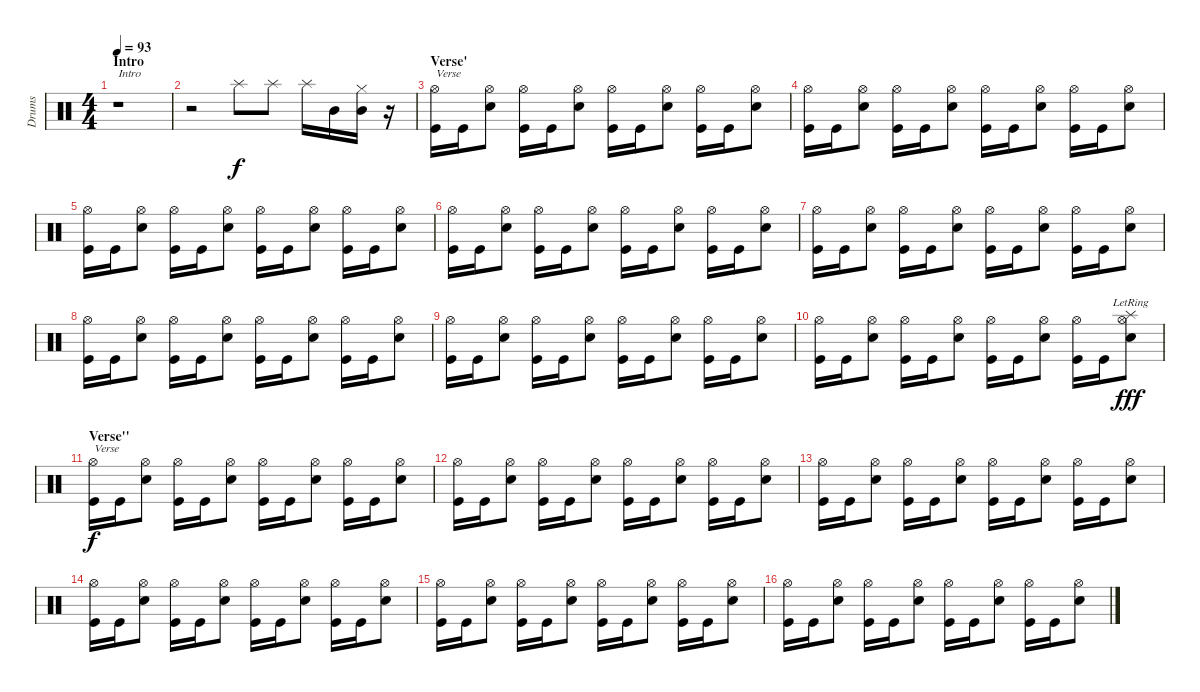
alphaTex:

\track ("Drums" "Drums") {instrument percussion}
\staff {score}
\articulation defaults
\ts (4 4)
\section ("" "Intro")
\tempo 93
\clef neutral
\ks c
r.1{txt "Intro" dy f} |
r.2 "Splash (hit)".8 "Splash (hit)".8 "Splash (hit)".16 "Mid Tom (hit)".16 ("Hi-Hat (closed)" "Mid Tom (hit)").16 r.16 |
\section ("" "Verse'")
("Hi-Hat (open)" "Kick (hit)").16{txt "Verse"} "Kick (hit)".16 ("Hi-Hat (open)" "Snare (hit) 2").8 ("Hi-Hat (open)" "Kick (hit)").16 "Kick (hit)".16 ("Hi-Hat (open)" "Snare (hit) 2").8 ("Hi-Hat (open)" "Kick (hit)").16 "Kick (hit)".16 ("Hi-Hat (open)" "Snare (hit) 2").8 ("Hi-Hat (open)" "Kick (hit)").16 "Kick (hit)".16 ("Hi-Hat (open)" "Snare (hit) 2").8 |
("Hi-Hat (open)" "Kick (hit)").16 "Kick (hit)".16 ("Hi-Hat (open)" "Snare (hit) 2").8 ("Hi-Hat (open)" "Kick (hit)").16 "Kick (hit)".16 ("Hi-Hat (open)" "Snare (hit) 2").8 ("Hi-Hat (open)" "Kick (hit)").16 "Kick (hit)".16 ("Hi-Hat (open)" "Snare (hit) 2").8 ("Hi-Hat (open)" "Kick (hit)").16 "Kick (hit)".16 ("Hi-Hat (open)" "Snare (hit) 2").8 |
("Hi-Hat (open)" "Kick (hit)").16 "Kick (hit)".16 ("Hi-Hat (open)" "Snare (hit) 2").8 ("Hi-Hat (open)" "Kick (hit)").16 "Kick (hit)".16 ("Hi-Hat (open)" "Snare (hit) 2").8 ("Hi-Hat (open)" "Kick (hit)").16 "Kick (hit)".16 ("Hi-Hat (open)" "Snare (hit) 2").8 ("Hi-Hat (open)" "Kick (hit)").16 "Kick (hit)".16 ("Hi-Hat (open)" "Snare (hit) 2").8 |
("Hi-Hat (open)" "Kick (hit)").16 "Kick (hit)".16 ("Hi-Hat (open)" "Snare (hit) 2").8 ("Hi-Hat (open)" "Kick (hit)").16 "Kick (hit)".16 ("Hi-Hat (open)" "Snare (hit) 2").8 ("Hi-Hat (open)" "Kick (hit)").16 "Kick (hit)".16 ("Hi-Hat (open)" "Snare (hit) 2").8 ("Hi-Hat (open)" "Kick (hit)").16 "Kick (hit)".16 ("Hi-Hat (open)" "Snare (hit) 2").8 |
("Hi-Hat (open)" "Kick (hit)").16 "Kick (hit)".16 ("Hi-Hat (open)" "Snare (hit) 2").8 ("Hi-Hat (open)" "Kick (hit)").16 "Kick (hit)".16 ("Hi-Hat (open)" "Snare (hit) 2").8 ("Hi-Hat (open)" "Kick (hit)").16 "Kick (hit)".16 ("Hi-Hat (open)" "Snare (hit) 2").8 ("Hi-Hat (open)" "Kick (hit)").16 "Kick (hit)".16 ("Hi-Hat (open)" "Snare (hit) 2").8 |
("Hi-Hat (open)" "Kick (hit)").16 "Kick (hit)".16 ("Hi-Hat (open)" "Snare (hit) 2").8 ("Hi-Hat (open)" "Kick (hit)").16 "Kick (hit)".16 ("Hi-Hat (open)" "Snare (hit) 2").8 ("Hi-Hat (open)" "Kick (hit)").16 "Kick (hit)".16 ("Hi-Hat (open)" "Snare (hit) 2").8 ("Hi-Hat (open)" "Kick (hit)").16 "Kick (hit)".16 ("Hi-Hat (open)" "Snare (hit) 2").8 |
("Hi-Hat (open)" "Kick (hit)").16 "Kick (hit)".16 ("Hi-Hat (open)" "Snare (hit) 2").8 ("Hi-Hat (open)" "Kick (hit)").16 "Kick (hit)".16 ("Hi-Hat (open)" "Snare (hit) 2").8 ("Hi-Hat (open)" "Kick (hit)").16 "Kick (hit)".16 ("Hi-Hat (open)" "Snare (hit) 2").8 ("Hi-Hat (open)" "Kick (hit)").16 "Kick (hit)".16 ("Hi-Hat (open)" "Snare (hit) 2").8 |
("Hi-Hat (open)" "Kick (hit)").16 "Kick (hit)".16 ("Hi-Hat (open)" "Snare (hit) 2").8 ("Hi-Hat (open)" "Kick (hit)").16 "Kick (hit)".16 ("Hi-Hat (open)" "Snare (hit) 2").8 ("Hi-Hat (open)" "Kick (hit)").16 "Kick (hit)".16 ("Hi-Hat (open)" "Snare (hit) 2").8 ("Hi-Hat (open)" "Kick (hit)").16 "Kick (hit)".16 ("Splash (hit)"{lr} "Hi-Hat (open)" "Snare (hit) 2").8{dy fff} |
\section ("" "Verse''")
("Hi-Hat (open)" "Kick (hit)").16{txt "Verse" dy f} "Kick (hit)".16 ("Hi-Hat (open)" "Snare (hit) 2").8 ("Hi-Hat (open)" "Kick (hit)").16 "Kick (hit)".16 ("Hi-Hat (open)" "Snare (hit) 2").8 ("Hi-Hat (open)" "Kick (hit)").16 "Kick (hit)".16 ("Hi-Hat (open)" "Snare (hit) 2").8 ("Hi-Hat (open)" "Kick (hit)").16 "Kick (hit)".16 ("Hi-Hat (open)" "Snare (hit) 2").8 |
("Hi-Hat (open)" "Kick (hit)").16 "Kick (hit)".16 ("Hi-Hat (open)" "Snare (hit) 2").8 ("Hi-Hat (open)" "Kick (hit)").16 "Kick (hit)".16 ("Hi-Hat (open)" "Snare (hit) 2").8 ("Hi-Hat (open)" "Kick (hit)").16 "Kick (hit)".16 ("Hi-Hat (open)" "Snare (hit) 2").8 ("Hi-Hat (open)" "Kick (hit)").16 "Kick (hit)".16 ("Hi-Hat (open)" "Snare (hit) 2").8 |
("Hi-Hat (open)" "Kick (hit)").16 "Kick (hit)".16 ("Hi-Hat (open)" "Snare (hit) 2").8 ("Hi-Hat (open)" "Kick (hit)").16 "Kick (hit)".16 ("Hi-Hat (open)" "Snare (hit) 2").8 ("Hi-Hat (open)" "Kick (hit)").16 "Kick (hit)".16 ("Hi-Hat (open)" "Snare (hit) 2").8 ("Hi-Hat (open)" "Kick (hit)").16 "Kick (hit)".16 ("Hi-Hat (open)" "Snare (hit) 2").8 |
("Hi-Hat (open)" "Kick (hit)").16 "Kick (hit)".16 ("Hi-Hat (open)" "Snare (hit) 2").8 ("Hi-Hat (open)" "Kick (hit)").16 "Kick (hit)".16 ("Hi-Hat (open)" "Snare (hit) 2").8 ("Hi-Hat (open)" "Kick (hit)").16 "Kick (hit)".16 ("Hi-Hat (open)" "Snare (hit) 2").8 ("Hi-Hat (open)" "Kick (hit)").16 "Kick (hit)".16 ("Hi-Hat (open)" "Snare (hit) 2").8 |
("Hi-Hat (open)" "Kick (hit)").16 "Kick (hit)".16 ("Hi-Hat (open)" "Snare (hit) 2").8 ("Hi-Hat (open)" "Kick (hit)").16 "Kick (hit)".16 ("Hi-Hat (open)" "Snare (hit) 2").8 ("Hi-Hat (open)" "Kick (hit)").16 "Kick (hit)".16 ("Hi-Hat (open)" "Snare (hit) 2").8 ("Hi-Hat (open)" "Kick (hit)").16 "Kick (hit)".16 ("Hi-Hat (open)" "Snare (hit) 2").8 |
("Hi-Hat (open)" "Kick (hit)").16 "Kick (hit)".16 ("Hi-Hat (open)" "Snare (hit) 2").8 ("Hi-Hat (open)" "Kick (hit)").16 "Kick (hit)".16 ("Hi-Hat (open)" "Snare (hit) 2").8 ("Hi-Hat (open)" "Kick (hit)").16 "Kick (hit)".16 ("Hi-Hat (open)" "Snare (hit) 2").8 ("Hi-Hat (open)" "Kick (hit)").16 "Kick (hit)".16 ("Hi-Hat (open)" "Snare (hit) 2").8
